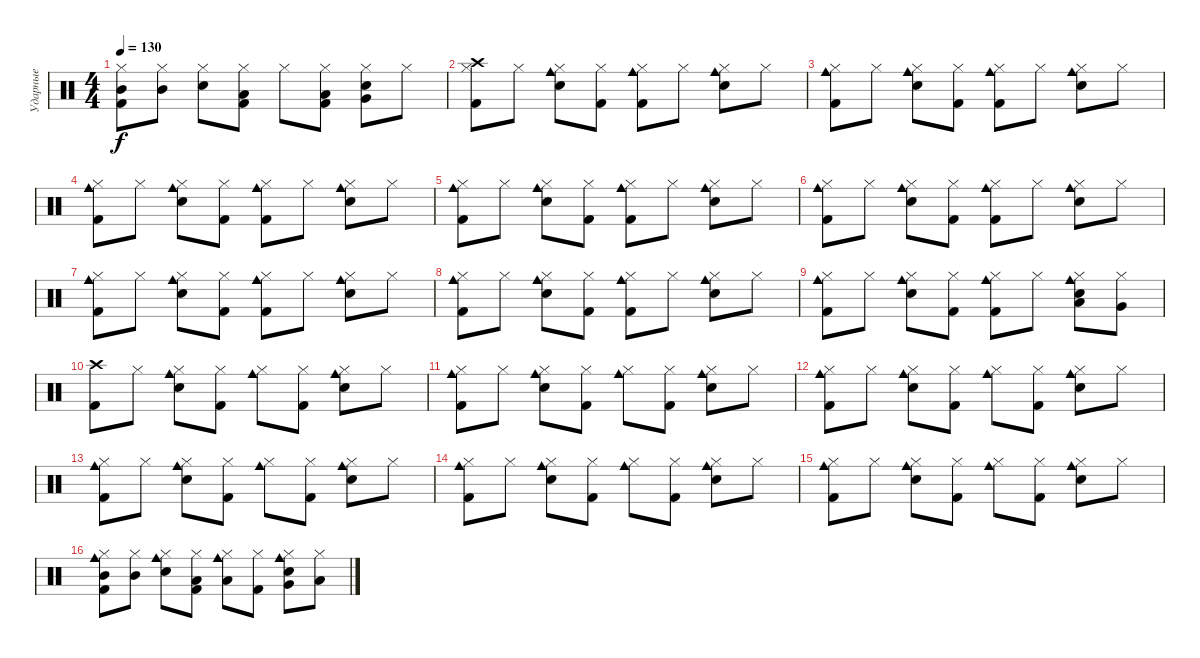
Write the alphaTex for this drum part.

\track ("Ударные" "Ударные") {instrument percussion}
\staff {score}
\articulation defaults
\ts (4 4)
\tempo 130
\clef neutral
\ks c
("Hi-Hat (closed)" "Mid Tom (hit)" "Kick (hit) 2").8{dy f} ("Hi-Hat (closed)" "Mid Tom (hit)").8 ("Hi-Hat (closed)" "Snare (hit) 2").8 ("Hi-Hat (closed)" "Low Tom (hit)" "Kick (hit) 2").8 "Hi-Hat (closed)".8 ("Hi-Hat (closed)" "Low Tom (hit)" "Kick (hit) 2").8 ("Hi-Hat (closed)" "Very Low Tom (hit)" "Snare (hit) 2").8 "Hi-Hat (closed)".8 |
("Hi-Hat (closed)" "Crash high (hit)" "Kick (hit) 2").8 "Hi-Hat (closed)".8 ("Hi-Hat (closed)" "Cowbell medium (hit)" "Snare (hit) 2").8 ("Hi-Hat (closed)" "Kick (hit) 2").8 ("Hi-Hat (closed)" "Cowbell medium (hit)" "Kick (hit) 2").8 "Hi-Hat (closed)".8 ("Hi-Hat (closed)" "Cowbell medium (hit)" "Snare (hit) 2").8 "Hi-Hat (closed)".8 |
("Hi-Hat (closed)" "Cowbell medium (hit)" "Kick (hit) 2").8 "Hi-Hat (closed)".8 ("Hi-Hat (closed)" "Cowbell medium (hit)" "Snare (hit) 2").8 ("Hi-Hat (closed)" "Kick (hit) 2").8 ("Hi-Hat (closed)" "Cowbell medium (hit)" "Kick (hit) 2").8 "Hi-Hat (closed)".8 ("Hi-Hat (closed)" "Cowbell medium (hit)" "Snare (hit) 2").8 "Hi-Hat (closed)".8 |
("Hi-Hat (closed)" "Cowbell medium (hit)" "Kick (hit) 2").8 "Hi-Hat (closed)".8 ("Hi-Hat (closed)" "Cowbell medium (hit)" "Snare (hit) 2").8 ("Hi-Hat (closed)" "Kick (hit) 2").8 ("Hi-Hat (closed)" "Cowbell medium (hit)" "Kick (hit) 2").8 "Hi-Hat (closed)".8 ("Hi-Hat (closed)" "Cowbell medium (hit)" "Snare (hit) 2").8 "Hi-Hat (closed)".8 |
("Hi-Hat (closed)" "Cowbell medium (hit)" "Kick (hit) 2").8 "Hi-Hat (closed)".8 ("Hi-Hat (closed)" "Cowbell medium (hit)" "Snare (hit) 2").8 ("Hi-Hat (closed)" "Kick (hit) 2").8 ("Hi-Hat (closed)" "Cowbell medium (hit)" "Kick (hit) 2").8 "Hi-Hat (closed)".8 ("Hi-Hat (closed)" "Cowbell medium (hit)" "Snare (hit) 2").8 "Hi-Hat (closed)".8 |
("Hi-Hat (closed)" "Cowbell medium (hit)" "Kick (hit) 2").8 "Hi-Hat (closed)".8 ("Hi-Hat (closed)" "Cowbell medium (hit)" "Snare (hit) 2").8 ("Hi-Hat (closed)" "Kick (hit) 2").8 ("Hi-Hat (closed)" "Cowbell medium (hit)" "Kick (hit) 2").8 "Hi-Hat (closed)".8 ("Hi-Hat (closed)" "Cowbell medium (hit)" "Snare (hit) 2").8 "Hi-Hat (closed)".8 |
("Hi-Hat (closed)" "Cowbell medium (hit)" "Kick (hit) 2").8 "Hi-Hat (closed)".8 ("Hi-Hat (closed)" "Cowbell medium (hit)" "Snare (hit) 2").8 ("Hi-Hat (closed)" "Kick (hit) 2").8 ("Hi-Hat (closed)" "Cowbell medium (hit)" "Kick (hit) 2").8 "Hi-Hat (closed)".8 ("Hi-Hat (closed)" "Cowbell medium (hit)" "Snare (hit) 2").8 "Hi-Hat (closed)".8 |
("Hi-Hat (closed)" "Cowbell medium (hit)" "Kick (hit) 2").8 "Hi-Hat (closed)".8 ("Hi-Hat (closed)" "Cowbell medium (hit)" "Snare (hit) 2").8 ("Hi-Hat (closed)" "Kick (hit) 2").8 ("Hi-Hat (closed)" "Cowbell medium (hit)" "Kick (hit) 2").8 "Hi-Hat (closed)".8 ("Hi-Hat (closed)" "Cowbell medium (hit)" "Snare (hit) 2").8 "Hi-Hat (closed)".8 |
("Hi-Hat (closed)" "Cowbell medium (hit)" "Kick (hit) 2").8 "Hi-Hat (closed)".8 ("Hi-Hat (closed)" "Cowbell medium (hit)" "Snare (hit) 2").8 ("Hi-Hat (closed)" "Kick (hit) 2").8 ("Hi-Hat (closed)" "Cowbell medium (hit)" "Kick (hit) 2").8 "Hi-Hat (closed)".8 ("Hi-Hat (closed)" "Low Tom (hit)" "Cowbell medium (hit)" "Snare (hit) 2").8 ("Hi-Hat (closed)" "Very Low Tom (hit)").8 |
("Crash high (hit)" "Kick (hit) 2").8 "Hi-Hat (closed)".8 ("Hi-Hat (closed)" "Cowbell medium (hit)" "Snare (hit) 2").8 ("Hi-Hat (closed)" "Kick (hit) 2").8 ("Hi-Hat (closed)" "Cowbell medium (hit)").8 ("Hi-Hat (closed)" "Kick (hit) 2").8 ("Hi-Hat (closed)" "Cowbell medium (hit)" "Snare (hit) 2").8 "Hi-Hat (closed)".8 |
("Hi-Hat (closed)" "Cowbell medium (hit)" "Kick (hit) 2").8 "Hi-Hat (closed)".8 ("Hi-Hat (closed)" "Cowbell medium (hit)" "Snare (hit) 2").8 ("Hi-Hat (closed)" "Kick (hit) 2").8 ("Hi-Hat (closed)" "Cowbell medium (hit)").8 ("Hi-Hat (closed)" "Kick (hit) 2").8 ("Hi-Hat (closed)" "Cowbell medium (hit)" "Snare (hit) 2").8 "Hi-Hat (closed)".8 |
("Hi-Hat (closed)" "Cowbell medium (hit)" "Kick (hit) 2").8 "Hi-Hat (closed)".8 ("Hi-Hat (closed)" "Cowbell medium (hit)" "Snare (hit) 2").8 ("Hi-Hat (closed)" "Kick (hit) 2").8 ("Hi-Hat (closed)" "Cowbell medium (hit)").8 ("Hi-Hat (closed)" "Kick (hit) 2").8 ("Hi-Hat (closed)" "Cowbell medium (hit)" "Snare (hit) 2").8 "Hi-Hat (closed)".8 |
("Hi-Hat (closed)" "Cowbell medium (hit)" "Kick (hit) 2").8 "Hi-Hat (closed)".8 ("Hi-Hat (closed)" "Cowbell medium (hit)" "Snare (hit) 2").8 ("Hi-Hat (closed)" "Kick (hit) 2").8 ("Hi-Hat (closed)" "Cowbell medium (hit)").8 ("Hi-Hat (closed)" "Kick (hit) 2").8 ("Hi-Hat (closed)" "Cowbell medium (hit)" "Snare (hit) 2").8 "Hi-Hat (closed)".8 |
("Hi-Hat (closed)" "Cowbell medium (hit)" "Kick (hit) 2").8 "Hi-Hat (closed)".8 ("Hi-Hat (closed)" "Cowbell medium (hit)" "Snare (hit) 2").8 ("Hi-Hat (closed)" "Kick (hit) 2").8 ("Hi-Hat (closed)" "Cowbell medium (hit)").8 ("Hi-Hat (closed)" "Kick (hit) 2").8 ("Hi-Hat (closed)" "Cowbell medium (hit)" "Snare (hit) 2").8 "Hi-Hat (closed)".8 |
("Hi-Hat (closed)" "Cowbell medium (hit)" "Kick (hit) 2").8 "Hi-Hat (closed)".8 ("Hi-Hat (closed)" "Cowbell medium (hit)" "Snare (hit) 2").8 ("Hi-Hat (closed)" "Kick (hit) 2").8 ("Hi-Hat (closed)" "Cowbell medium (hit)").8 ("Hi-Hat (closed)" "Kick (hit) 2").8 ("Hi-Hat (closed)" "Cowbell medium (hit)" "Snare (hit) 2").8 "Hi-Hat (closed)".8 |
("Hi-Hat (closed)" "Cowbell medium (hit)" "Mid Tom (hit)" "Kick (hit) 2").8 ("Hi-Hat (closed)" "Mid Tom (hit)").8 ("Hi-Hat (closed)" "Cowbell medium (hit)" "Snare (hit) 2").8 ("Hi-Hat (closed)" "Low Tom (hit)" "Kick (hit) 2").8 ("Hi-Hat (closed)" "Cowbell medium (hit)" "Low Tom (hit)").8 ("Hi-Hat (closed)" "Kick (hit) 2").8 ("Hi-Hat (closed)" "Cowbell medium (hit)" "Very Low Tom (hit)" "Snare (hit) 2").8 ("Hi-Hat (closed)" "Low Floor Tom (hit)").8
